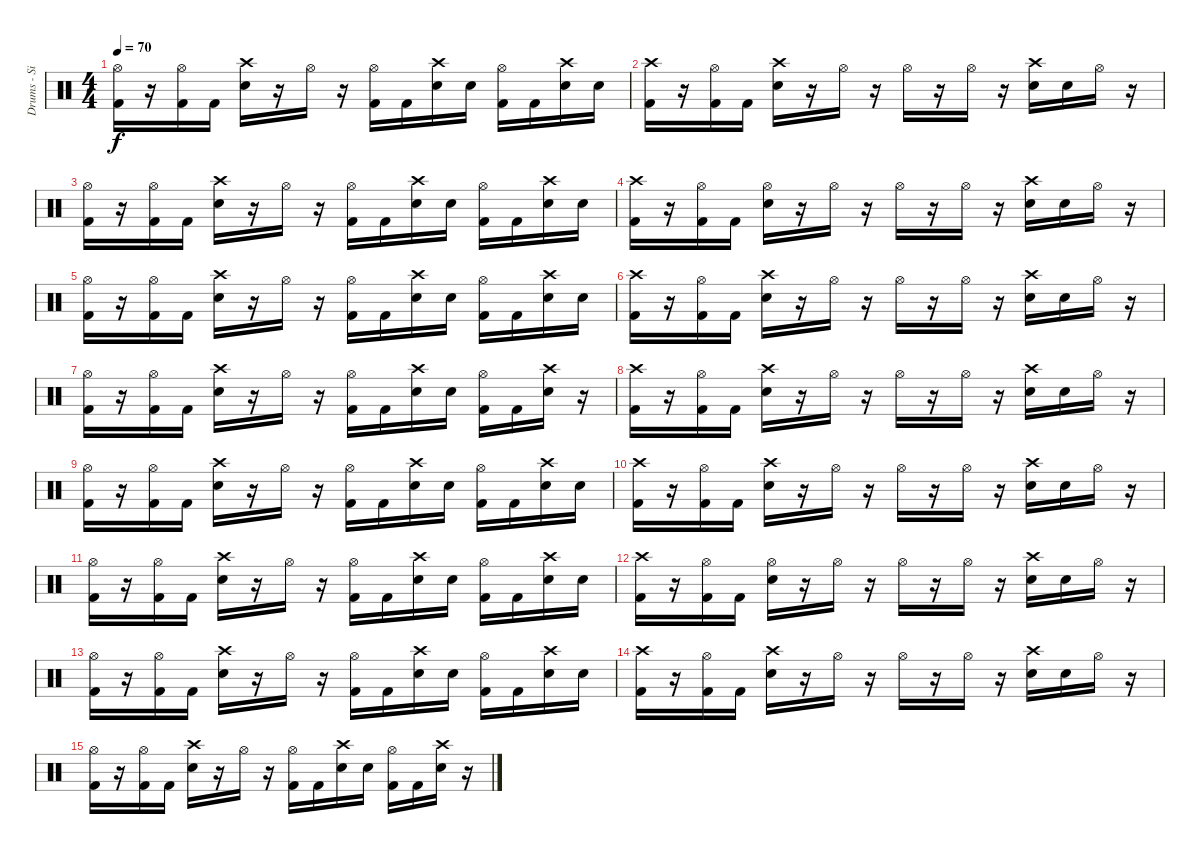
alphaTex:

\track ("Drums - Si" "Drums - Si") {instrument percussion}
\staff {score}
\articulation defaults
\ts (4 4)
\tempo 70
\clef neutral
\ks c
("Hi-Hat (open)" "Kick (hit) 2").16{dy f} r.16 ("Hi-Hat (open)" "Kick (hit) 2").16 "Kick (hit) 2".16 ("Crash high (hit)" "Snare (hit) 2").16 r.16 "Hi-Hat (open)".16 r.16 ("Hi-Hat (open)" "Kick (hit) 2").16 "Kick (hit) 2".16 ("Crash high (hit)" "Snare (hit) 2").16 "Snare (hit) 2".16 ("Hi-Hat (open)" "Kick (hit) 2").16 "Kick (hit) 2".16 ("Crash high (hit)" "Snare (hit) 2").16 "Snare (hit) 2".16 |
("Crash high (hit)" "Kick (hit) 2").16 r.16 ("Hi-Hat (open)" "Kick (hit) 2").16 "Kick (hit) 2".16 ("Crash high (hit)" "Snare (hit) 2").16 r.16 "Hi-Hat (open)".16 r.16 "Hi-Hat (open)".16 r.16 "Hi-Hat (open)".16 r.16 ("Crash high (hit)" "Snare (hit) 2").16 "Snare (hit) 2".16 "Hi-Hat (open)".16 r.16 |
("Hi-Hat (open)" "Kick (hit) 2").16 r.16 ("Hi-Hat (open)" "Kick (hit) 2").16 "Kick (hit) 2".16 ("Crash high (hit)" "Snare (hit) 2").16 r.16 "Hi-Hat (open)".16 r.16 ("Hi-Hat (open)" "Kick (hit) 2").16 "Kick (hit) 2".16 ("Crash high (hit)" "Snare (hit) 2").16 "Snare (hit) 2".16 ("Hi-Hat (open)" "Kick (hit) 2").16 "Kick (hit) 2".16 ("Crash high (hit)" "Snare (hit) 2").16 "Snare (hit) 2".16 |
("Crash high (hit)" "Kick (hit) 2").16 r.16 ("Hi-Hat (open)" "Kick (hit) 2").16 "Kick (hit) 2".16 ("Hi-Hat (open)" "Snare (hit) 2").16 r.16 "Hi-Hat (open)".16 r.16 "Hi-Hat (open)".16 r.16 "Hi-Hat (open)".16 r.16 ("Crash high (hit)" "Snare (hit) 2").16 "Snare (hit) 2".16 "Hi-Hat (open)".16 r.16 |
("Hi-Hat (open)" "Kick (hit) 2").16 r.16 ("Hi-Hat (open)" "Kick (hit) 2").16 "Kick (hit) 2".16 ("Crash high (hit)" "Snare (hit) 2").16 r.16 "Hi-Hat (open)".16 r.16 ("Hi-Hat (open)" "Kick (hit) 2").16 "Kick (hit) 2".16 ("Crash high (hit)" "Snare (hit) 2").16 "Snare (hit) 2".16 ("Hi-Hat (open)" "Kick (hit) 2").16 "Kick (hit) 2".16 ("Crash high (hit)" "Snare (hit) 2").16 "Snare (hit) 2".16 |
("Crash high (hit)" "Kick (hit) 2").16 r.16 ("Hi-Hat (open)" "Kick (hit) 2").16 "Kick (hit) 2".16 ("Crash high (hit)" "Snare (hit) 2").16 r.16 "Hi-Hat (open)".16 r.16 "Hi-Hat (open)".16 r.16 "Hi-Hat (open)".16 r.16 ("Crash high (hit)" "Snare (hit) 2").16 "Snare (hit) 2".16 "Hi-Hat (open)".16 r.16 |
("Hi-Hat (open)" "Kick (hit) 2").16 r.16 ("Hi-Hat (open)" "Kick (hit) 2").16 "Kick (hit) 2".16 ("Crash high (hit)" "Snare (hit) 2").16 r.16 "Hi-Hat (open)".16 r.16 ("Hi-Hat (open)" "Kick (hit) 2").16 "Kick (hit) 2".16 ("Crash high (hit)" "Snare (hit) 2").16 "Snare (hit) 2".16 ("Hi-Hat (open)" "Kick (hit) 2").16 "Kick (hit) 2".16 ("Crash high (hit)" "Snare (hit) 2").16 r.16 |
("Crash high (hit)" "Kick (hit) 2").16 r.16 ("Hi-Hat (open)" "Kick (hit) 2").16 "Kick (hit) 2".16 ("Crash high (hit)" "Snare (hit) 2").16 r.16 "Hi-Hat (open)".16 r.16 "Hi-Hat (open)".16 r.16 "Hi-Hat (open)".16 r.16 ("Crash high (hit)" "Snare (hit) 2").16 "Snare (hit) 2".16 "Hi-Hat (open)".16 r.16 |
("Hi-Hat (open)" "Kick (hit) 2").16 r.16 ("Hi-Hat (open)" "Kick (hit) 2").16 "Kick (hit) 2".16 ("Crash high (hit)" "Snare (hit) 2").16 r.16 "Hi-Hat (open)".16 r.16 ("Hi-Hat (open)" "Kick (hit) 2").16 "Kick (hit) 2".16 ("Crash high (hit)" "Snare (hit) 2").16 "Snare (hit) 2".16 ("Hi-Hat (open)" "Kick (hit) 2").16 "Kick (hit) 2".16 ("Crash high (hit)" "Snare (hit) 2").16 "Snare (hit) 2".16 |
("Crash high (hit)" "Kick (hit) 2").16 r.16 ("Hi-Hat (open)" "Kick (hit) 2").16 "Kick (hit) 2".16 ("Crash high (hit)" "Snare (hit) 2").16 r.16 "Hi-Hat (open)".16 r.16 "Hi-Hat (open)".16 r.16 "Hi-Hat (open)".16 r.16 ("Crash high (hit)" "Snare (hit) 2").16 "Snare (hit) 2".16 "Hi-Hat (open)".16 r.16 |
("Hi-Hat (open)" "Kick (hit) 2").16 r.16 ("Hi-Hat (open)" "Kick (hit) 2").16 "Kick (hit) 2".16 ("Crash high (hit)" "Snare (hit) 2").16 r.16 "Hi-Hat (open)".16 r.16 ("Hi-Hat (open)" "Kick (hit) 2").16 "Kick (hit) 2".16 ("Crash high (hit)" "Snare (hit) 2").16 "Snare (hit) 2".16 ("Hi-Hat (open)" "Kick (hit) 2").16 "Kick (hit) 2".16 ("Crash high (hit)" "Snare (hit) 2").16 "Snare (hit) 2".16 |
("Crash high (hit)" "Kick (hit) 2").16 r.16 ("Hi-Hat (open)" "Kick (hit) 2").16 "Kick (hit) 2".16 ("Hi-Hat (open)" "Snare (hit) 2").16 r.16 "Hi-Hat (open)".16 r.16 "Hi-Hat (open)".16 r.16 "Hi-Hat (open)".16 r.16 ("Crash high (hit)" "Snare (hit) 2").16 "Snare (hit) 2".16 "Hi-Hat (open)".16 r.16 |
("Hi-Hat (open)" "Kick (hit) 2").16 r.16 ("Hi-Hat (open)" "Kick (hit) 2").16 "Kick (hit) 2".16 ("Crash high (hit)" "Snare (hit) 2").16 r.16 "Hi-Hat (open)".16 r.16 ("Hi-Hat (open)" "Kick (hit) 2").16 "Kick (hit) 2".16 ("Crash high (hit)" "Snare (hit) 2").16 "Snare (hit) 2".16 ("Hi-Hat (open)" "Kick (hit) 2").16 "Kick (hit) 2".16 ("Crash high (hit)" "Snare (hit) 2").16 "Snare (hit) 2".16 |
("Crash high (hit)" "Kick (hit) 2").16 r.16 ("Hi-Hat (open)" "Kick (hit) 2").16 "Kick (hit) 2".16 ("Crash high (hit)" "Snare (hit) 2").16 r.16 "Hi-Hat (open)".16 r.16 "Hi-Hat (open)".16 r.16 "Hi-Hat (open)".16 r.16 ("Crash high (hit)" "Snare (hit) 2").16 "Snare (hit) 2".16 "Hi-Hat (open)".16 r.16 |
("Hi-Hat (open)" "Kick (hit) 2").16 r.16 ("Hi-Hat (open)" "Kick (hit) 2").16 "Kick (hit) 2".16 ("Crash high (hit)" "Snare (hit) 2").16 r.16 "Hi-Hat (open)".16 r.16 ("Hi-Hat (open)" "Kick (hit) 2").16 "Kick (hit) 2".16 ("Crash high (hit)" "Snare (hit) 2").16 "Snare (hit) 2".16 ("Hi-Hat (open)" "Kick (hit) 2").16 "Kick (hit) 2".16 ("Crash high (hit)" "Snare (hit) 2").16 r.16
